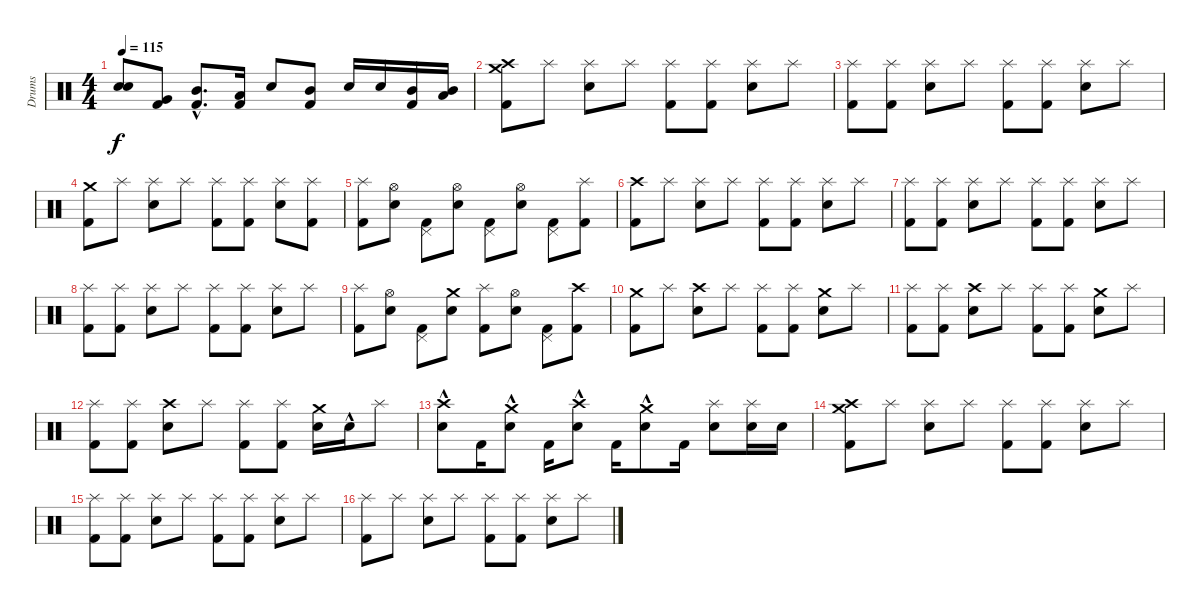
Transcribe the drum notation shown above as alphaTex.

\track ("Drums" "Drums") {instrument percussion}
\staff {score}
\articulation defaults
\ts (4 4)
\tempo 115
\clef neutral
\ks c
("Snare (hit)"{t} "Snare (hit)"{t}).8{dy f} ("Kick (hit) 2" "Very Low Tom (hit)").8 ("Kick (hit) 2"{hac} "Mid Tom (hit)"{hac}).8{d} ("Kick (hit) 2" "Low Tom (hit)").16 "Snare (hit) 2".8 ("Kick (hit) 2" "Mid Tom (hit)").8 "Snare (hit) 2".16 "Snare (hit) 2".16 ("Kick (hit) 2" "Mid Tom (hit)").16 ("Low Tom (hit)" "Mid Tom (hit)").16 |
("Kick (hit) 2" "Crash high (hit)" "Crash medium (hit)").8 "Splash (hit)".8 ("Splash (hit)" "Snare (hit) 2").8 "Splash (hit)".8 ("Splash (hit)" "Kick (hit) 2").8 ("Splash (hit)" "Kick (hit) 2").8 ("Splash (hit)" "Snare (hit) 2").8 "Splash (hit)".8 |
("Splash (hit)" "Kick (hit) 2").8 ("Splash (hit)" "Kick (hit) 2").8 ("Splash (hit)" "Snare (hit) 2").8 "Splash (hit)".8 ("Splash (hit)" "Kick (hit) 2").8 ("Splash (hit)" "Kick (hit) 2").8 ("Splash (hit)" "Snare (hit) 2").8 "Splash (hit)".8 |
("Kick (hit) 2" "Crash medium (hit)").8 "Splash (hit)".8 ("Splash (hit)" "Snare (hit) 2").8 "Splash (hit)".8 ("Splash (hit)" "Kick (hit) 2").8 ("Splash (hit)" "Kick (hit) 2").8 ("Splash (hit)" "Snare (hit) 2").8 ("Splash (hit)" "Kick (hit) 2").8 |
("Splash (hit)" "Kick (hit) 2").8 ("Snare (hit) 2" "Hi-Hat (open)").8 ("Kick (hit) 2" "Pedal Hi-Hat (hit)").8 ("Snare (hit) 2" "Hi-Hat (open)").8 ("Kick (hit) 2" "Pedal Hi-Hat (hit)").8 ("Snare (hit) 2" "Hi-Hat (open)").8 ("Kick (hit) 2" "Pedal Hi-Hat (hit)").8 ("Kick (hit) 2" "Splash (hit)").8 |
("Kick (hit) 2" "Crash high (hit)").8 "Splash (hit)".8 ("Splash (hit)" "Snare (hit) 2").8 "Splash (hit)".8 ("Splash (hit)" "Kick (hit) 2").8 ("Splash (hit)" "Kick (hit) 2").8 ("Splash (hit)" "Snare (hit) 2").8 "Splash (hit)".8 |
("Splash (hit)" "Kick (hit) 2").8 ("Splash (hit)" "Kick (hit) 2").8 ("Splash (hit)" "Snare (hit) 2").8 "Splash (hit)".8 ("Splash (hit)" "Kick (hit) 2").8 ("Splash (hit)" "Kick (hit) 2").8 ("Splash (hit)" "Snare (hit) 2").8 "Splash (hit)".8 |
("Splash (hit)" "Kick (hit) 2").8 ("Splash (hit)" "Kick (hit) 2").8 ("Splash (hit)" "Snare (hit) 2").8 "Splash (hit)".8 ("Splash (hit)" "Kick (hit) 2").8 ("Splash (hit)" "Kick (hit) 2").8 ("Splash (hit)" "Snare (hit) 2").8 "Splash (hit)".8 |
("Splash (hit)" "Kick (hit) 2").8 ("Snare (hit) 2" "Hi-Hat (open)").8 ("Kick (hit) 2" "Pedal Hi-Hat (hit)").8 ("Snare (hit) 2" "Crash medium (hit)").8 ("Splash (hit)" "Kick (hit) 2").8 ("Snare (hit) 2" "Hi-Hat (open)").8 ("Kick (hit) 2" "Pedal Hi-Hat (hit)").8 ("Kick (hit) 2" "Crash high (hit)").8 |
("Kick (hit) 2" "Crash medium (hit)").8 "Splash (hit)".8 ("Snare (hit) 2" "Crash high (hit)").8 "Splash (hit)".8 ("Kick (hit) 2" "Splash (hit)").8 ("Splash (hit)" "Kick (hit) 2").8 ("Snare (hit) 2" "Crash medium (hit)").8 "Splash (hit)".8 |
("Splash (hit)" "Kick (hit) 2").8 ("Splash (hit)" "Kick (hit) 2").8 ("Crash high (hit)" "Snare (hit) 2").8 "Splash (hit)".8 ("Splash (hit)" "Kick (hit) 2").8 ("Splash (hit)" "Kick (hit) 2").8 ("Crash medium (hit)" "Snare (hit) 2").8 "Splash (hit)".8 |
("Splash (hit)" "Kick (hit) 2").8 ("Splash (hit)" "Kick (hit) 2").8 ("Snare (hit) 2" "Crash high (hit)").8 "Splash (hit)".8 ("Splash (hit)" "Kick (hit) 2").8 ("Splash (hit)" "Kick (hit) 2").8 ("Crash medium (hit)" "Snare (hit) 2").16 "Snare (hit) 2"{hac}.16 "Splash (hit)".8 |
("Crash high (hit)"{hac} "Snare (hit) 2").8 "Kick (hit) 2".16 ("Snare (hit) 2" "Crash medium (hit)"{hac}).8 "Kick (hit) 2".16 ("Crash high (hit)"{hac} "Snare (hit) 2").8 "Kick (hit) 2".16 ("Crash medium (hit)"{hac} "Snare (hit) 2").8 "Kick (hit) 2".16 ("Splash (hit)" "Snare (hit) 2").8 ("Splash (hit)" "Snare (hit) 2").16 "Snare (hit) 2".16 |
("Kick (hit) 2" "Crash high (hit)" "Crash medium (hit)").8 "Splash (hit)".8 ("Splash (hit)" "Snare (hit) 2").8 "Splash (hit)".8 ("Splash (hit)" "Kick (hit) 2").8 ("Splash (hit)" "Kick (hit) 2").8 ("Splash (hit)" "Snare (hit) 2").8 "Splash (hit)".8 |
("Splash (hit)" "Kick (hit) 2").8 ("Splash (hit)" "Kick (hit) 2").8 ("Splash (hit)" "Snare (hit) 2").8 "Splash (hit)".8 ("Splash (hit)" "Kick (hit) 2").8 ("Splash (hit)" "Kick (hit) 2").8 ("Splash (hit)" "Snare (hit) 2").8 "Splash (hit)".8 |
("Splash (hit)" "Kick (hit) 2").8 "Splash (hit)".8 ("Splash (hit)" "Snare (hit) 2").8 "Splash (hit)".8 ("Splash (hit)" "Kick (hit) 2").8 ("Splash (hit)" "Kick (hit) 2").8 ("Splash (hit)" "Snare (hit) 2").8 "Splash (hit)".8
